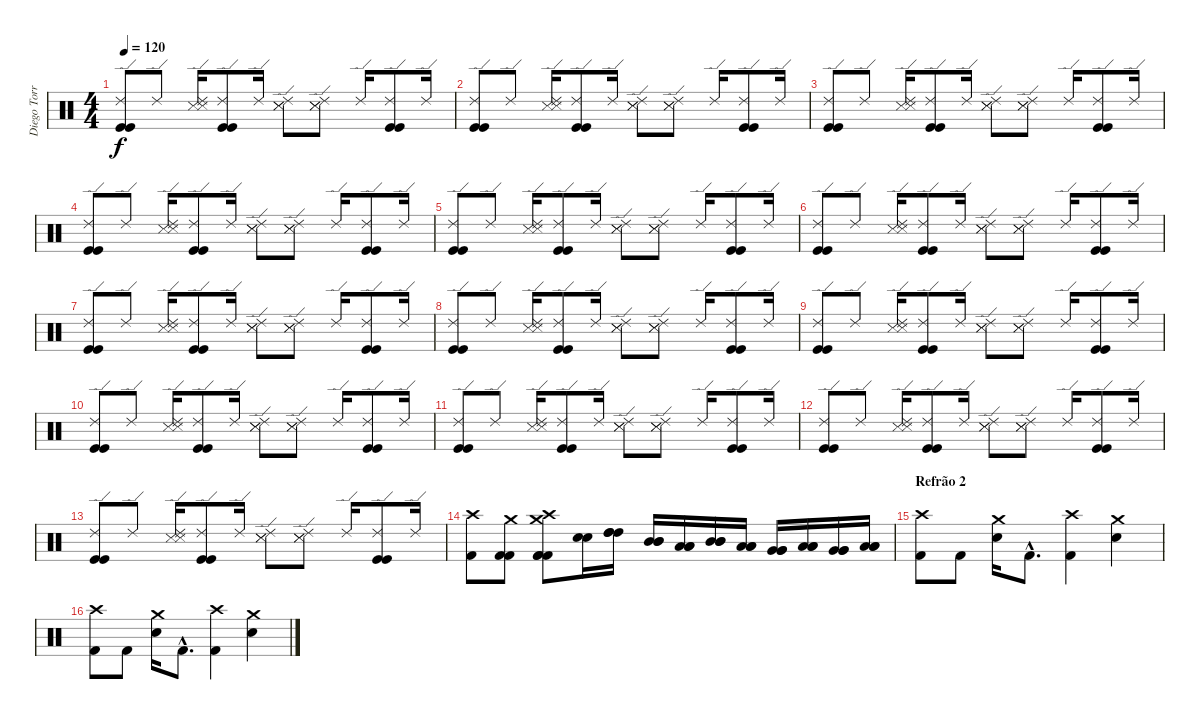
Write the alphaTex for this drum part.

\track ("Diego Torres [Bateria]" "Diego Torr") {instrument percussion}
\staff {score}
\articulation defaults
\ts (4 4)
\tempo 120
\clef neutral
\ks c
("Ride (edge) 2" "Kick (hit)" "Kick (hit)").8{dy f} "Ride (edge) 2".8 ("Ride (edge) 2" "Snare (side stick) 3" "Snare (side stick) 3").16 ("Ride (edge) 2" "Kick (hit)" "Kick (hit)").8 "Ride (edge) 2".16 ("Ride (edge) 2" "Snare (side stick) 3" "Snare (side stick) 3").8 ("Ride (edge) 2" "Snare (side stick) 3" "Snare (side stick) 3").8 "Ride (edge) 2".16 ("Ride (edge) 2" "Kick (hit)" "Kick (hit)").8 "Ride (edge) 2".16 |
("Ride (edge) 2" "Kick (hit)" "Kick (hit)").8 "Ride (edge) 2".8 ("Ride (edge) 2" "Snare (side stick) 3" "Snare (side stick) 3").16 ("Ride (edge) 2" "Kick (hit)" "Kick (hit)").8 "Ride (edge) 2".16 ("Ride (edge) 2" "Snare (side stick) 3" "Snare (side stick) 3").8 ("Ride (edge) 2" "Snare (side stick) 3" "Snare (side stick) 3").8 "Ride (edge) 2".16 ("Ride (edge) 2" "Kick (hit)" "Kick (hit)").8 "Ride (edge) 2".16 |
("Ride (edge) 2" "Kick (hit)" "Kick (hit)").8 "Ride (edge) 2".8 ("Ride (edge) 2" "Snare (side stick) 3" "Snare (side stick) 3").16 ("Ride (edge) 2" "Kick (hit)" "Kick (hit)").8 "Ride (edge) 2".16 ("Ride (edge) 2" "Snare (side stick) 3" "Snare (side stick) 3").8 ("Ride (edge) 2" "Snare (side stick) 3" "Snare (side stick) 3").8 "Ride (edge) 2".16 ("Ride (edge) 2" "Kick (hit)" "Kick (hit)").8 "Ride (edge) 2".16 |
("Ride (edge) 2" "Kick (hit)" "Kick (hit)").8 "Ride (edge) 2".8 ("Ride (edge) 2" "Snare (side stick) 3" "Snare (side stick) 3").16 ("Ride (edge) 2" "Kick (hit)" "Kick (hit)").8 "Ride (edge) 2".16 ("Ride (edge) 2" "Snare (side stick) 3" "Snare (side stick) 3").8 ("Ride (edge) 2" "Snare (side stick) 3" "Snare (side stick) 3").8 "Ride (edge) 2".16 ("Ride (edge) 2" "Kick (hit)" "Kick (hit)").8 "Ride (edge) 2".16 |
("Ride (edge) 2" "Kick (hit)" "Kick (hit)").8 "Ride (edge) 2".8 ("Ride (edge) 2" "Snare (side stick) 3" "Snare (side stick) 3").16 ("Ride (edge) 2" "Kick (hit)" "Kick (hit)").8 "Ride (edge) 2".16 ("Ride (edge) 2" "Snare (side stick) 3" "Snare (side stick) 3").8 ("Ride (edge) 2" "Snare (side stick) 3" "Snare (side stick) 3").8 "Ride (edge) 2".16 ("Ride (edge) 2" "Kick (hit)" "Kick (hit)").8 "Ride (edge) 2".16 |
("Ride (edge) 2" "Kick (hit)" "Kick (hit)").8 "Ride (edge) 2".8 ("Ride (edge) 2" "Snare (side stick) 3" "Snare (side stick) 3").16 ("Ride (edge) 2" "Kick (hit)" "Kick (hit)").8 "Ride (edge) 2".16 ("Ride (edge) 2" "Snare (side stick) 3" "Snare (side stick) 3").8 ("Ride (edge) 2" "Snare (side stick) 3" "Snare (side stick) 3").8 "Ride (edge) 2".16 ("Ride (edge) 2" "Kick (hit)" "Kick (hit)").8 "Ride (edge) 2".16 |
("Ride (edge) 2" "Kick (hit)" "Kick (hit)").8 "Ride (edge) 2".8 ("Ride (edge) 2" "Snare (side stick) 3" "Snare (side stick) 3").16 ("Ride (edge) 2" "Kick (hit)" "Kick (hit)").8 "Ride (edge) 2".16 ("Ride (edge) 2" "Snare (side stick) 3" "Snare (side stick) 3").8 ("Ride (edge) 2" "Snare (side stick) 3" "Snare (side stick) 3").8 "Ride (edge) 2".16 ("Ride (edge) 2" "Kick (hit)" "Kick (hit)").8 "Ride (edge) 2".16 |
("Ride (edge) 2" "Kick (hit)" "Kick (hit)").8 "Ride (edge) 2".8 ("Ride (edge) 2" "Snare (side stick) 3" "Snare (side stick) 3").16 ("Ride (edge) 2" "Kick (hit)" "Kick (hit)").8 "Ride (edge) 2".16 ("Ride (edge) 2" "Snare (side stick) 3" "Snare (side stick) 3").8 ("Ride (edge) 2" "Snare (side stick) 3" "Snare (side stick) 3").8 "Ride (edge) 2".16 ("Ride (edge) 2" "Kick (hit)" "Kick (hit)").8 "Ride (edge) 2".16 |
("Ride (edge) 2" "Kick (hit)" "Kick (hit)").8 "Ride (edge) 2".8 ("Ride (edge) 2" "Snare (side stick) 3" "Snare (side stick) 3").16 ("Ride (edge) 2" "Kick (hit)" "Kick (hit)").8 "Ride (edge) 2".16 ("Ride (edge) 2" "Snare (side stick) 3" "Snare (side stick) 3").8 ("Ride (edge) 2" "Snare (side stick) 3" "Snare (side stick) 3").8 "Ride (edge) 2".16 ("Ride (edge) 2" "Kick (hit)" "Kick (hit)").8 "Ride (edge) 2".16 |
("Ride (edge) 2" "Kick (hit)" "Kick (hit)").8 "Ride (edge) 2".8 ("Ride (edge) 2" "Snare (side stick) 3" "Snare (side stick) 3").16 ("Ride (edge) 2" "Kick (hit)" "Kick (hit)").8 "Ride (edge) 2".16 ("Ride (edge) 2" "Snare (side stick) 3" "Snare (side stick) 3").8 ("Ride (edge) 2" "Snare (side stick) 3" "Snare (side stick) 3").8 "Ride (edge) 2".16 ("Ride (edge) 2" "Kick (hit)" "Kick (hit)").8 "Ride (edge) 2".16 |
("Ride (edge) 2" "Kick (hit)" "Kick (hit)").8 "Ride (edge) 2".8 ("Ride (edge) 2" "Snare (side stick) 3" "Snare (side stick) 3").16 ("Ride (edge) 2" "Kick (hit)" "Kick (hit)").8 "Ride (edge) 2".16 ("Ride (edge) 2" "Snare (side stick) 3" "Snare (side stick) 3").8 ("Ride (edge) 2" "Snare (side stick) 3" "Snare (side stick) 3").8 "Ride (edge) 2".16 ("Ride (edge) 2" "Kick (hit)" "Kick (hit)").8 "Ride (edge) 2".16 |
("Ride (edge) 2" "Kick (hit)" "Kick (hit)").8 "Ride (edge) 2".8 ("Ride (edge) 2" "Snare (side stick) 3" "Snare (side stick) 3").16 ("Ride (edge) 2" "Kick (hit)" "Kick (hit)").8 "Ride (edge) 2".16 ("Ride (edge) 2" "Snare (side stick) 3" "Snare (side stick) 3").8 ("Ride (edge) 2" "Snare (side stick) 3" "Snare (side stick) 3").8 "Ride (edge) 2".16 ("Ride (edge) 2" "Kick (hit)" "Kick (hit)").8 "Ride (edge) 2".16 |
("Ride (edge) 2" "Kick (hit)" "Kick (hit)").8 "Ride (edge) 2".8 ("Ride (edge) 2" "Snare (side stick) 3" "Snare (side stick) 3").16 ("Ride (edge) 2" "Kick (hit)" "Kick (hit)").8 "Ride (edge) 2".16 ("Ride (edge) 2" "Snare (side stick) 3" "Snare (side stick) 3").8 ("Ride (edge) 2" "Snare (side stick) 3" "Snare (side stick) 3").8 "Ride (edge) 2".16 ("Ride (edge) 2" "Kick (hit)" "Kick (hit)").8 "Ride (edge) 2".16 |
("Crash high (hit)" "Kick (hit) 2").8 ("Crash medium (hit)" "Kick (hit) 2" "Kick (hit) 2").8 ("Crash high (hit)" "Crash medium (hit)" "Kick (hit) 2" "Kick (hit) 2" "Kick (hit) 2").8 ("Electric Snare (hit)" "Electric Snare (hit)").16 ("High Tom (hit)" "High Tom (hit)" "High Tom (hit)").16 ("Mid Tom (hit)" "Mid Tom (hit)" "Mid Tom (hit)").16 ("Low Tom (hit)" "Low Tom (hit)" "Low Tom (hit)").16 ("Mid Tom (hit)" "Mid Tom (hit)" "Mid Tom (hit)").16 ("Low Tom (hit)" "Low Tom (hit)" "Low Tom (hit)").16 ("Very Low Tom (hit)" "Very Low Tom (hit)" "Very Low Tom (hit)").16 ("Low Tom (hit)" "Low Tom (hit)" "Low Tom (hit)").16 ("Very Low Tom (hit)" "Very Low Tom (hit)" "Very Low Tom (hit)").16 ("Low Floor Tom (hit)" "Low Floor Tom (hit)" "Low Floor Tom (hit)").16 |
\section ("" "Refrão 2")
("Crash high (hit)" "Kick (hit) 2").8 "Kick (hit) 2".8 ("Crash medium (hit)" "Electric Snare (hit)").16 "Kick (hit) 2"{hac}.8{d} ("Crash high (hit)" "Kick (hit) 2").4 ("Crash medium (hit)" "Electric Snare (hit)").4 |
("Crash high (hit)" "Kick (hit) 2").8 "Kick (hit) 2".8 ("Crash medium (hit)" "Electric Snare (hit)").16 "Kick (hit) 2"{hac}.8{d} ("Crash high (hit)" "Kick (hit) 2").4 ("Crash medium (hit)" "Electric Snare (hit)").4
